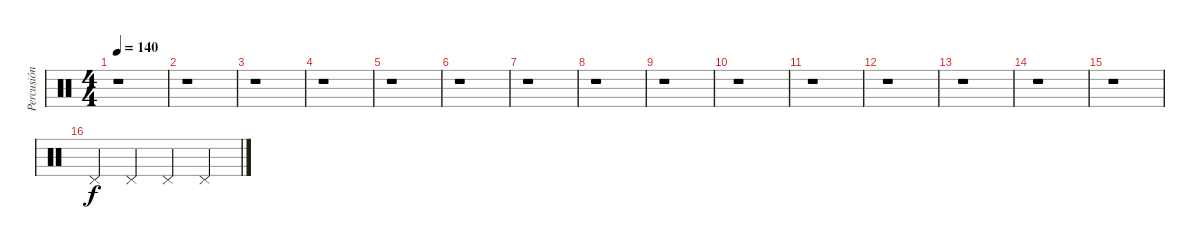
\track ("Percusión" "Percusión") {instrument percussion}
\staff {score}
\articulation defaults
\ts (4 4)
\tempo 140
\clef neutral
\ks c
r.1{dy f} |
r.1 |
r.1 |
r.1 |
r.1 |
r.1 |
r.1 |
r.1 |
r.1 |
r.1 |
r.1 |
r.1 |
r.1 |
r.1 |
r.1 |
"Pedal Hi-Hat (hit)".4 "Pedal Hi-Hat (hit)".4 "Pedal Hi-Hat (hit)".4 "Pedal Hi-Hat (hit)".4
